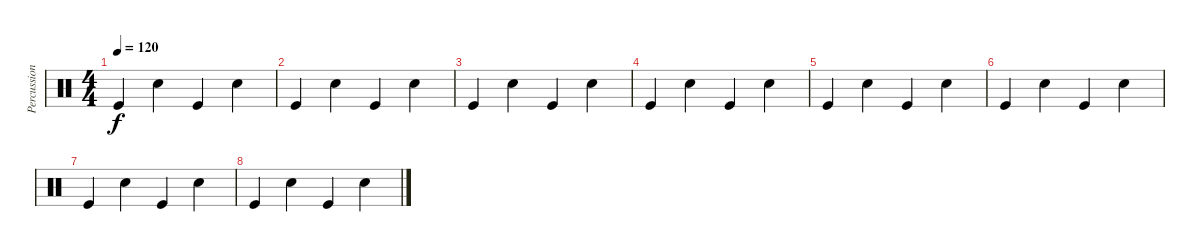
\track ("Percussion" "Percussion") {instrument percussion}
\staff {score}
\articulation defaults
\ts (4 4)
\tempo 120
\clef neutral
\ks c "Kick (hit)".4{dy f} "Snare (hit) 2".4 "Kick (hit)".4 "Snare (hit) 2".4
|
"Kick (hit)".4 "Snare (hit) 2".4 "Kick (hit)".4 "Snare (hit) 2".4 |
"Kick (hit)".4 "Snare (hit) 2".4 "Kick (hit)".4 "Snare (hit) 2".4 |
"Kick (hit)".4 "Snare (hit) 2".4 "Kick (hit)".4 "Snare (hit) 2".4 |
"Kick (hit)".4 "Snare (hit) 2".4 "Kick (hit)".4 "Snare (hit) 2".4 |
"Kick (hit)".4 "Snare (hit) 2".4 "Kick (hit)".4 "Snare (hit) 2".4 |
"Kick (hit)".4 "Snare (hit) 2".4 "Kick (hit)".4 "Snare (hit) 2".4 |
"Kick (hit)".4 "Snare (hit) 2".4 "Kick (hit)".4 "Snare (hit) 2".4
